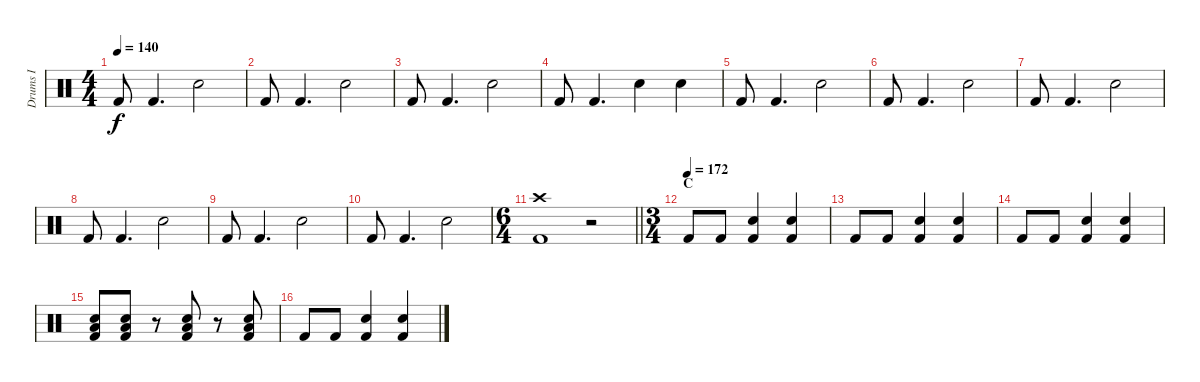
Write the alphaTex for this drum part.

\track ("Drums I" "Drums I") {instrument percussion}
\staff {score}
\articulation defaults
\ts (4 4)
\tempo 140
\clef neutral
\ks c "Kick (hit) 2".8{dy f} "Kick (hit) 2".4{d} "Electric Snare (hit)".2
|
"Kick (hit) 2".8 "Kick (hit) 2".4{d} "Electric Snare (hit)".2 |
"Kick (hit) 2".8 "Kick (hit) 2".4{d} "Electric Snare (hit)".2 |
"Kick (hit) 2".8 "Kick (hit) 2".4{d} "Electric Snare (hit)".4 "Electric Snare (hit)".4 |
"Kick (hit) 2".8 "Kick (hit) 2".4{d} "Electric Snare (hit)".2 |
"Kick (hit) 2".8 "Kick (hit) 2".4{d} "Electric Snare (hit)".2 |
"Kick (hit) 2".8 "Kick (hit) 2".4{d} "Electric Snare (hit)".2 |
"Kick (hit) 2".8 "Kick (hit) 2".4{d} "Electric Snare (hit)".2 |
"Kick (hit) 2".8 "Kick (hit) 2".4{d} "Electric Snare (hit)".2 |
"Kick (hit) 2".8 "Kick (hit) 2".4{d} "Electric Snare (hit)".2 |
\ts (6 4)
\barLineRight lightlight
("Crash high (hit)" "Kick (hit) 2").1 r.2 |
\ts (3 4)
\section ("" "C")
\tempo (172)
"Kick (hit) 2".8 "Kick (hit) 2".8 ("Electric Snare (hit)" "Kick (hit) 2").4 ("Electric Snare (hit)" "Kick (hit) 2").4 |
"Kick (hit) 2".8 "Kick (hit) 2".8 ("Electric Snare (hit)" "Kick (hit) 2").4 ("Electric Snare (hit)" "Kick (hit) 2").4 |
"Kick (hit) 2".8 "Kick (hit) 2".8 ("Electric Snare (hit)" "Kick (hit) 2").4 ("Electric Snare (hit)" "Kick (hit) 2").4 |
("Electric Snare (hit)" "Low Floor Tom (hit)" "Kick (hit) 2").8 ("Electric Snare (hit)" "Low Floor Tom (hit)" "Kick (hit) 2").8 r.8 ("Electric Snare (hit)" "Low Floor Tom (hit)" "Kick (hit) 2").8 r.8 ("Electric Snare (hit)" "Low Floor Tom (hit)" "Kick (hit) 2").8 |
"Kick (hit) 2".8 "Kick (hit) 2".8 ("Electric Snare (hit)" "Kick (hit) 2").4 ("Electric Snare (hit)" "Kick (hit) 2").4
